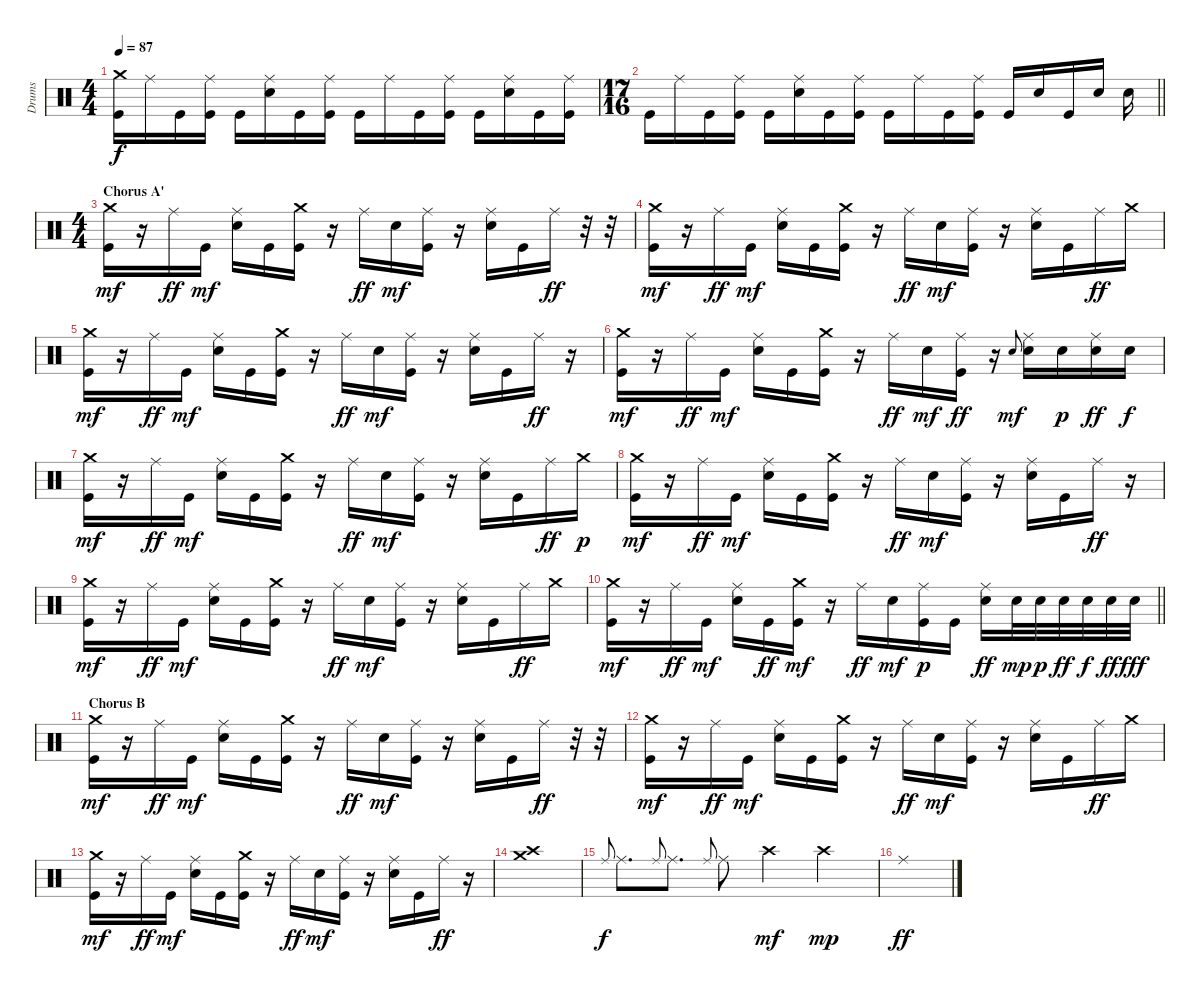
\track ("Drums" "Drums") {instrument percussion}
\staff {score}
\articulation defaults
\ts (4 4)
\tempo 87
\clef neutral
\ks c
("Crash medium (hit)" "Kick (hit)").16{dy f} "Ride (middle)".16 "Kick (hit)".16 ("Ride (middle)" "Kick (hit)").16 "Kick (hit)".16 ("Ride (middle)" "Electric Snare (hit)").16 "Kick (hit)".16 ("Ride (middle)" "Kick (hit)").16 "Kick (hit)".16 "Ride (middle)".16 "Kick (hit)".16 ("Ride (middle)" "Kick (hit)").16 "Kick (hit)".16 ("Ride (middle)" "Electric Snare (hit)").16 "Kick (hit)".16 ("Ride (middle)" "Kick (hit)").16 |
\ts (17 16)
\barLineRight lightlight "Kick (hit)".16 "Ride (middle)".16 "Kick (hit)".16
("Ride (middle)" "Kick (hit)").16 "Kick (hit)".16 ("Ride (middle)" "Electric Snare (hit)").16 "Kick (hit)".16 ("Ride (middle)" "Kick (hit)").16 "Kick (hit)".16 "Ride (middle)".16 "Kick (hit)".16 ("Ride (middle)" "Kick (hit)").16 "Kick (hit)".16 "Electric Snare (hit)".16 "Kick (hit)".16 "Electric Snare (hit)".16 "Electric Snare (hit)".16 |
\ts (4 4)
\section ("" "Chorus A'")
("Crash medium (hit)" "Kick (hit)").16{dy mf} r.16 "Ride (middle)".16{dy ff} "Kick (hit)".16{dy mf} ("Ride (middle)" "Electric Snare (hit)").16 "Kick (hit)".16 ("Crash medium (hit)" "Kick (hit)").16 r.16 "Ride (middle)".16{dy ff} "Electric Snare (hit)".16{dy mf} ("Ride (middle)" "Kick (hit)").16 r.16 ("Ride (middle)" "Electric Snare (hit)").16 "Kick (hit)".16 "Ride (middle)".16{dy ff} r.32 r.32 |
("Crash medium (hit)" "Kick (hit)").16{dy mf} r.16 "Ride (middle)".16{dy ff} "Kick (hit)".16{dy mf} ("Ride (middle)" "Electric Snare (hit)").16 "Kick (hit)".16 ("Crash medium (hit)" "Kick (hit)").16 r.16 "Ride (middle)".16{dy ff} "Electric Snare (hit)".16{dy mf} ("Ride (middle)" "Kick (hit)").16 r.16 ("Ride (middle)" "Electric Snare (hit)").16 "Kick (hit)".16 "Ride (middle)".16{dy ff} "Crash medium (hit)".16 |
("Crash medium (hit)" "Kick (hit)").16{dy mf} r.16 "Ride (middle)".16{dy ff} "Kick (hit)".16{dy mf} ("Ride (middle)" "Electric Snare (hit)").16 "Kick (hit)".16 ("Crash medium (hit)" "Kick (hit)").16 r.16 "Ride (middle)".16{dy ff} "Electric Snare (hit)".16{dy mf} ("Ride (middle)" "Kick (hit)").16 r.16 ("Ride (middle)" "Electric Snare (hit)").16 "Kick (hit)".16 "Ride (middle)".16{dy ff} r.16 |
("Crash medium (hit)" "Kick (hit)").16{dy mf} r.16 "Ride (middle)".16{dy ff} "Kick (hit)".16{dy mf} ("Ride (middle)" "Electric Snare (hit)").16 "Kick (hit)".16 ("Crash medium (hit)" "Kick (hit)").16 r.16 "Ride (middle)".16{dy ff} "Electric Snare (hit)".16{dy mf} ("Ride (middle)" "Kick (hit)").16{dy ff} r.16 "Electric Snare (hit)".8{gr onbeat dy mf} ("Ride (middle)" "Electric Snare (hit)").16 "Electric Snare (hit)".16{dy p} ("Ride (middle)" "Electric Snare (hit)").16{dy ff} "Electric Snare (hit)".16{dy f} |
("Crash medium (hit)" "Kick (hit)").16{dy mf} r.16 "Ride (middle)".16{dy ff} "Kick (hit)".16{dy mf} ("Ride (middle)" "Electric Snare (hit)").16 "Kick (hit)".16 ("Crash medium (hit)" "Kick (hit)").16 r.16 "Ride (middle)".16{dy ff} "Electric Snare (hit)".16{dy mf} ("Ride (middle)" "Kick (hit)").16 r.16 ("Ride (middle)" "Electric Snare (hit)").16 "Kick (hit)".16 "Ride (middle)".16{dy ff} "Crash medium (hit)".16{dy p} |
("Crash medium (hit)" "Kick (hit)").16{dy mf} r.16 "Ride (middle)".16{dy ff} "Kick (hit)".16{dy mf} ("Ride (middle)" "Electric Snare (hit)").16 "Kick (hit)".16 ("Crash medium (hit)" "Kick (hit)").16 r.16 "Ride (middle)".16{dy ff} "Electric Snare (hit)".16{dy mf} ("Ride (middle)" "Kick (hit)").16 r.16 ("Ride (middle)" "Electric Snare (hit)").16 "Kick (hit)".16 "Ride (middle)".16{dy ff} r.16 |
("Crash medium (hit)" "Kick (hit)").16{dy mf} r.16 "Ride (middle)".16{dy ff} "Kick (hit)".16{dy mf} ("Ride (middle)" "Electric Snare (hit)").16 "Kick (hit)".16 ("Crash medium (hit)" "Kick (hit)").16 r.16 "Ride (middle)".16{dy ff} "Electric Snare (hit)".16{dy mf} ("Ride (middle)" "Kick (hit)").16 r.16 ("Ride (middle)" "Electric Snare (hit)").16 "Kick (hit)".16 "Ride (middle)".16{dy ff} "Crash medium (hit)".16 |
\barLineRight lightlight
("Crash medium (hit)" "Kick (hit)").16{dy mf} r.16 "Ride (middle)".16{dy ff} "Kick (hit)".16{dy mf} ("Ride (middle)" "Electric Snare (hit)").16 "Kick (hit)".16{dy ff} ("Crash medium (hit)" "Kick (hit)").16{dy mf} r.16 "Ride (middle)".16{dy ff} "Electric Snare (hit)".16{dy mf} ("Ride (middle)" "Kick (hit)").16{dy p} "Kick (hit)".16 ("Ride (middle)" "Electric Snare (hit)").16{dy ff} "Electric Snare (hit)".32{dy mp} "Electric Snare (hit)".32{dy p} "Electric Snare (hit)".32{dy ff} "Electric Snare (hit)".32{dy f} "Electric Snare (hit)".32{dy ff} "Electric Snare (hit)".32{dy fff} |
\section ("" "Chorus B")
("Crash medium (hit)" "Kick (hit)").16{dy mf} r.16 "Ride (middle)".16{dy ff} "Kick (hit)".16{dy mf} ("Ride (middle)" "Electric Snare (hit)").16 "Kick (hit)".16 ("Crash medium (hit)" "Kick (hit)").16 r.16 "Ride (middle)".16{dy ff} "Electric Snare (hit)".16{dy mf} ("Ride (middle)" "Kick (hit)").16 r.16 ("Ride (middle)" "Electric Snare (hit)").16 "Kick (hit)".16 "Ride (middle)".16{dy ff} r.32 r.32 |
("Crash medium (hit)" "Kick (hit)").16{dy mf} r.16 "Ride (middle)".16{dy ff} "Kick (hit)".16{dy mf} ("Ride (middle)" "Electric Snare (hit)").16 "Kick (hit)".16 ("Crash medium (hit)" "Kick (hit)").16 r.16 "Ride (middle)".16{dy ff} "Electric Snare (hit)".16{dy mf} ("Ride (middle)" "Kick (hit)").16 r.16 ("Ride (middle)" "Electric Snare (hit)").16 "Kick (hit)".16 "Ride (middle)".16{dy ff} "Crash medium (hit)".16 |
("Crash medium (hit)" "Kick (hit)").16{dy mf} r.16 "Ride (middle)".16{dy ff} "Kick (hit)".16{dy mf} ("Ride (middle)" "Electric Snare (hit)").16 "Kick (hit)".16 ("Crash medium (hit)" "Kick (hit)").16 r.16 "Ride (middle)".16{dy ff} "Electric Snare (hit)".16{dy mf} ("Ride (middle)" "Kick (hit)").16 r.16 ("Ride (middle)" "Electric Snare (hit)").16 "Kick (hit)".16 "Ride (middle)".16{dy ff} r.16 |
("Crash high (hit)" "Crash medium (hit)").1 |
"Ride (middle)".8{gr onbeat dy f} "Ride (middle)".8{d} "Ride (middle)".8{gr onbeat} "Ride (middle)".8{d} "Ride (middle)".8{gr onbeat} "Ride (middle)".8 "Crash high (hit)".4{dy mf} "Crash high (hit)".4{dy mp} |
"Ride (middle)".1{dy ff}
